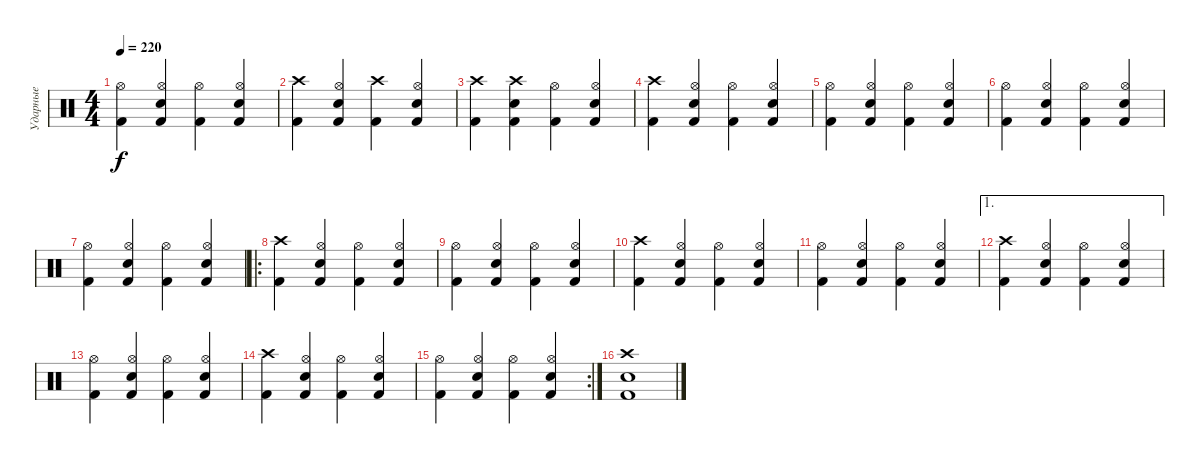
\track ("Ударные" "Ударные") {instrument percussion}
\staff
\articulation defaults
\ts (4 4)
\tempo 220
\clef neutral
\ks c
("Kick (hit) 2" "Hi-Hat (open)").4{dy f} ("Kick (hit) 2" "Snare (hit) 2" "Hi-Hat (open)").4 ("Kick (hit) 2" "Hi-Hat (open)").4 ("Kick (hit) 2" "Snare (hit) 2" "Hi-Hat (open)").4 |
("Kick (hit) 2" "Crash high (hit)").4 ("Kick (hit) 2" "Snare (hit) 2" "Hi-Hat (open)").4 ("Kick (hit) 2" "Crash high (hit)").4 ("Kick (hit) 2" "Snare (hit) 2" "Hi-Hat (open)").4 |
("Kick (hit) 2" "Crash high (hit)").4 ("Kick (hit) 2" "Snare (hit) 2" "Crash high (hit)").4 ("Kick (hit) 2" "Hi-Hat (open)").4 ("Kick (hit) 2" "Snare (hit) 2" "Hi-Hat (open)").4 |
("Kick (hit) 2" "Crash high (hit)").4 ("Kick (hit) 2" "Snare (hit) 2" "Hi-Hat (open)").4 ("Kick (hit) 2" "Hi-Hat (open)").4 ("Kick (hit) 2" "Snare (hit) 2" "Hi-Hat (open)").4 |
("Kick (hit) 2" "Hi-Hat (open)").4 ("Kick (hit) 2" "Snare (hit) 2" "Hi-Hat (open)").4 ("Kick (hit) 2" "Hi-Hat (open)").4 ("Kick (hit) 2" "Snare (hit) 2" "Hi-Hat (open)").4 |
("Kick (hit) 2" "Hi-Hat (open)").4 ("Kick (hit) 2" "Snare (hit) 2" "Hi-Hat (open)").4 ("Kick (hit) 2" "Hi-Hat (open)").4 ("Kick (hit) 2" "Snare (hit) 2" "Hi-Hat (open)").4 |
("Kick (hit) 2" "Hi-Hat (open)").4 ("Kick (hit) 2" "Snare (hit) 2" "Hi-Hat (open)").4 ("Kick (hit) 2" "Hi-Hat (open)").4 ("Kick (hit) 2" "Snare (hit) 2" "Hi-Hat (open)").4 |
\ro
("Kick (hit) 2" "Crash high (hit)").4 ("Kick (hit) 2" "Snare (hit) 2" "Hi-Hat (open)").4 ("Kick (hit) 2" "Hi-Hat (open)").4 ("Kick (hit) 2" "Snare (hit) 2" "Hi-Hat (open)").4 |
("Kick (hit) 2" "Hi-Hat (open)").4 ("Kick (hit) 2" "Snare (hit) 2" "Hi-Hat (open)").4 ("Kick (hit) 2" "Hi-Hat (open)").4 ("Kick (hit) 2" "Snare (hit) 2" "Hi-Hat (open)").4 |
("Kick (hit) 2" "Crash high (hit)").4 ("Kick (hit) 2" "Snare (hit) 2" "Hi-Hat (open)").4 ("Kick (hit) 2" "Hi-Hat (open)").4 ("Kick (hit) 2" "Snare (hit) 2" "Hi-Hat (open)").4 |
("Kick (hit) 2" "Hi-Hat (open)").4 ("Kick (hit) 2" "Snare (hit) 2" "Hi-Hat (open)").4 ("Kick (hit) 2" "Hi-Hat (open)").4 ("Kick (hit) 2" "Snare (hit) 2" "Hi-Hat (open)").4 |
\ae 1
("Kick (hit) 2" "Crash high (hit)").4 ("Kick (hit) 2" "Snare (hit) 2" "Hi-Hat (open)").4 ("Kick (hit) 2" "Hi-Hat (open)").4 ("Kick (hit) 2" "Snare (hit) 2" "Hi-Hat (open)").4 |
("Kick (hit) 2" "Hi-Hat (open)").4 ("Kick (hit) 2" "Snare (hit) 2" "Hi-Hat (open)").4 ("Kick (hit) 2" "Hi-Hat (open)").4 ("Kick (hit) 2" "Snare (hit) 2" "Hi-Hat (open)").4 |
("Kick (hit) 2" "Crash high (hit)").4 ("Kick (hit) 2" "Snare (hit) 2" "Hi-Hat (open)").4 ("Kick (hit) 2" "Hi-Hat (open)").4 ("Kick (hit) 2" "Snare (hit) 2" "Hi-Hat (open)").4 |
\rc 2
("Kick (hit) 2" "Hi-Hat (open)").4 ("Kick (hit) 2" "Snare (hit) 2" "Hi-Hat (open)").4 ("Kick (hit) 2" "Hi-Hat (open)").4 ("Kick (hit) 2" "Snare (hit) 2" "Hi-Hat (open)").4 |
("Kick (hit) 2" "Snare (hit) 2" "Crash high (hit)").1
